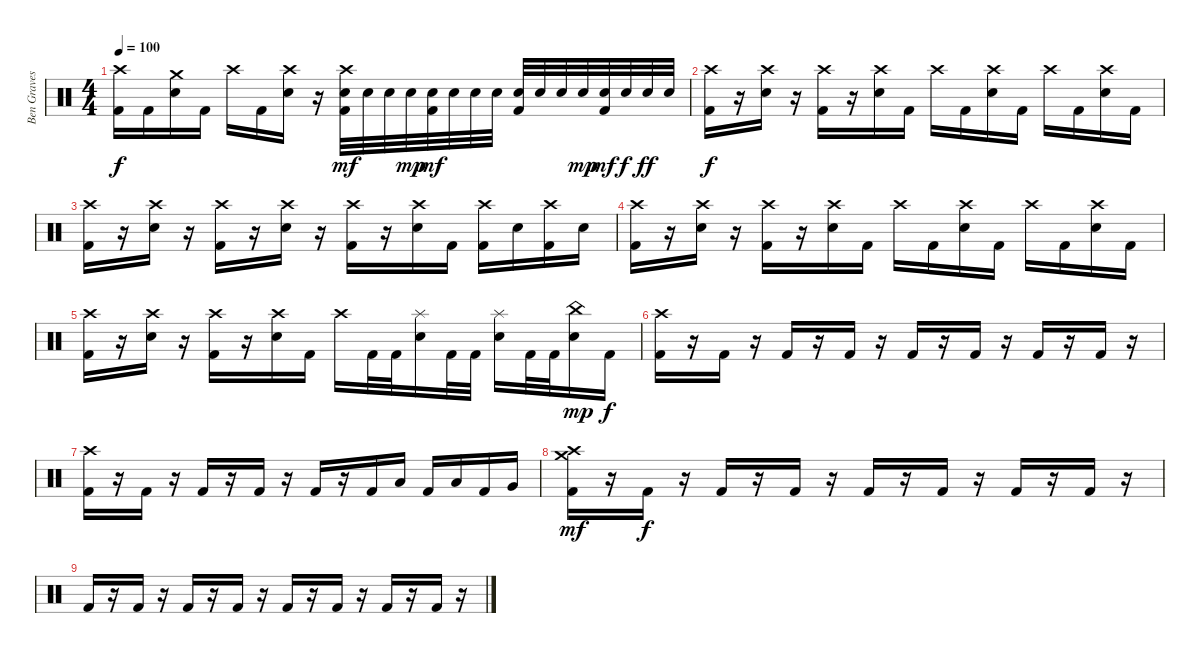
\track ("Ben Graves (theghoul)" "Ben Graves") {instrument percussion}
\staff {score}
\articulation defaults
\ts (4 4)
\tempo 100
\clef neutral
\ks c
("Crash high (hit)" "Kick (hit) 2").16{dy f} "Kick (hit) 2".16 ("Crash medium (hit)" "Snare (hit) 2").16 "Kick (hit) 2".16 "Crash high (hit)".16 "Kick (hit) 2".16 ("Crash high (hit)" "Snare (hit) 2").16 r.16 ("Crash high (hit)" "Snare (hit) 2" "Kick (hit) 2").32{dy mf} "Snare (hit) 2".32 "Snare (hit) 2".32 "Snare (hit) 2".32{dy mp} ("Snare (hit) 2" "Kick (hit) 2").32{dy mf} "Snare (hit) 2".32 "Snare (hit) 2".32 "Snare (hit) 2".32 ("Snare (hit) 2" "Kick (hit) 2").32 "Snare (hit) 2".32 "Snare (hit) 2".32 "Snare (hit) 2".32{dy mp} ("Snare (hit) 2" "Kick (hit) 2").32{dy mf} "Snare (hit) 2".32{dy f} "Snare (hit) 2".32{dy ff} "Snare (hit) 2".32 |
("Crash high (hit)" "Kick (hit) 2").16{dy f} r.16 ("Crash high (hit)" "Snare (hit) 2").16 r.16 ("Crash high (hit)" "Kick (hit) 2").16 r.16 ("Crash high (hit)" "Snare (hit) 2").16 "Kick (hit) 2".16 "Crash high (hit)".16 "Kick (hit) 2".16 ("Crash high (hit)" "Snare (hit) 2").16 "Kick (hit) 2".16 "Crash high (hit)".16 "Kick (hit) 2".16 ("Crash high (hit)" "Snare (hit) 2").16 "Kick (hit) 2".16 |
("Crash high (hit)" "Kick (hit) 2").16 r.16 ("Crash high (hit)" "Snare (hit) 2").16 r.16 ("Crash high (hit)" "Kick (hit) 2").16 r.16 ("Crash high (hit)" "Snare (hit) 2").16 r.16 ("Crash high (hit)" "Kick (hit) 2").16 r.16 ("Crash high (hit)" "Snare (hit) 2").16 "Kick (hit) 2".16 ("Crash high (hit)" "Kick (hit) 2").16 "Snare (hit) 2".16 ("Crash high (hit)" "Kick (hit) 2").16 "Snare (hit) 2".16 |
("Crash high (hit)" "Kick (hit) 2").16 r.16 ("Crash high (hit)" "Snare (hit) 2").16 r.16 ("Crash high (hit)" "Kick (hit) 2").16 r.16 ("Crash high (hit)" "Snare (hit) 2").16 "Kick (hit) 2".16 "Crash high (hit)".16 "Kick (hit) 2".16 ("Crash high (hit)" "Snare (hit) 2").16 "Kick (hit) 2".16 "Crash high (hit)".16 "Kick (hit) 2".16 ("Crash high (hit)" "Snare (hit) 2").16 "Kick (hit) 2".16 |
("Crash high (hit)" "Kick (hit) 2").16 r.16 ("Crash high (hit)" "Snare (hit) 2").16 r.16 ("Crash high (hit)" "Kick (hit) 2").16 r.16 ("Crash high (hit)" "Snare (hit) 2").16 "Kick (hit) 2".16 "Crash high (hit)".16 "Kick (hit) 2".32 "Kick (hit) 2".32 ("Splash (hit)" "Snare (hit) 2").16 "Kick (hit) 2".32 "Kick (hit) 2".32 ("Splash (hit)" "Snare (hit) 2").16 "Kick (hit) 2".32 "Kick (hit) 2".32 ("China (hit)" "Snare (hit) 2").16{dy mp} "Kick (hit) 2".16{dy f} |
("Crash high (hit)" "Kick (hit) 2").16 r.16 "Kick (hit) 2".16 r.16 "Kick (hit) 2".16 r.16 "Kick (hit) 2".16 r.16 "Kick (hit) 2".16 r.16 "Kick (hit) 2".16 r.16 "Kick (hit) 2".16 r.16 "Kick (hit) 2".16 r.16 |
("Crash high (hit)" "Kick (hit) 2").16 r.16 "Kick (hit) 2".16 r.16 "Kick (hit) 2".16 r.16 "Kick (hit) 2".16 r.16 "Kick (hit) 2".16 r.16 "Kick (hit) 2".16 "Low Tom (hit)".16 "Kick (hit) 2".16 "Low Tom (hit)".16 "Kick (hit) 2".16 "Very Low Tom (hit)".16 |
("Crash high (hit)" "Crash medium (hit)" "Kick (hit) 2").16{dy mf} r.16 "Kick (hit) 2".16{dy f} r.16 "Kick (hit) 2".16 r.16 "Kick (hit) 2".16 r.16 "Kick (hit) 2".16 r.16 "Kick (hit) 2".16 r.16 "Kick (hit) 2".16 r.16 "Kick (hit) 2".16 r.16 |
"Kick (hit) 2".16 r.16 "Kick (hit) 2".16 r.16 "Kick (hit) 2".16 r.16 "Kick (hit) 2".16 r.16 "Kick (hit) 2".16 r.16 "Kick (hit) 2".16 r.16 "Kick (hit) 2".16 r.16 "Kick (hit) 2".16 r.16
